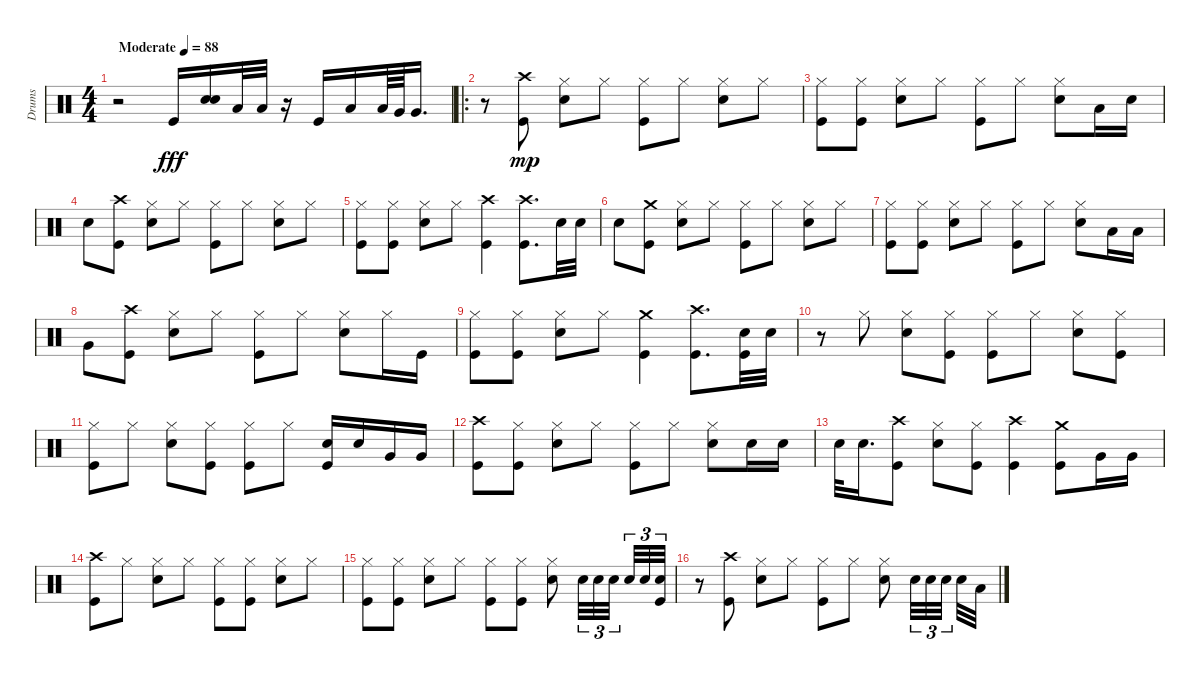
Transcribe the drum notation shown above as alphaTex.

\track ("Drums" "Drums") {instrument percussion}
\staff {score}
\articulation defaults
\ts (4 4)
\tempo (88 "Moderate")
\clef neutral
\ks c
r.2{dy fff} "Kick (hit)".16 ("Snare (hit) 2" "Snare (hit) 2").16 "Low Tom (hit)".32 "Low Tom (hit)".32 r.16 "Kick (hit)".16 "Low Tom (hit)".16 "Low Tom (hit)".64 "Very Low Tom (hit)".64 "Very Low Tom (hit)".16{d} |
\ro
r.8 ("Crash high (hit)" "Kick (hit)").8{dy mp} ("Snare (hit) 2" "Hi-Hat (closed)").8 "Hi-Hat (closed)".8 ("Hi-Hat (closed)" "Kick (hit)").8 "Hi-Hat (closed)".8 ("Hi-Hat (closed)" "Snare (hit) 2").8 "Hi-Hat (closed)".8 |
("Kick (hit)" "Hi-Hat (closed)").8 ("Hi-Hat (closed)" "Kick (hit)").8 ("Snare (hit) 2" "Hi-Hat (closed)").8 "Hi-Hat (closed)".8 ("Kick (hit)" "Hi-Hat (closed)").8 "Hi-Hat (closed)".8 ("Snare (hit) 2" "Hi-Hat (closed)").8 "Low Tom (hit)".16 "Snare (hit) 2".16 |
"Snare (hit) 2".8 ("Crash high (hit)" "Kick (hit)").8 ("Snare (hit) 2" "Hi-Hat (closed)").8 "Hi-Hat (closed)".8 ("Kick (hit)" "Hi-Hat (closed)").8 "Hi-Hat (closed)".8 ("Snare (hit) 2" "Hi-Hat (closed)").8 "Hi-Hat (closed)".8 |
("Kick (hit)" "Hi-Hat (closed)").8 ("Hi-Hat (closed)" "Kick (hit)").8 ("Snare (hit) 2" "Hi-Hat (closed)").8 "Hi-Hat (closed)".8 ("Kick (hit)" "Crash high (hit)").4 ("Crash high (hit)" "Kick (hit)").8{d} "Snare (hit) 2".32 "Snare (hit) 2".32 |
"Snare (hit) 2".8 ("Crash medium (hit)" "Kick (hit)").8 ("Snare (hit) 2" "Hi-Hat (closed)").8 "Hi-Hat (closed)".8 ("Kick (hit)" "Hi-Hat (closed)").8 "Hi-Hat (closed)".8 ("Snare (hit) 2" "Hi-Hat (closed)").8 "Hi-Hat (closed)".8 |
("Kick (hit)" "Hi-Hat (closed)").8 ("Hi-Hat (closed)" "Kick (hit)").8 ("Snare (hit) 2" "Hi-Hat (closed)").8 "Hi-Hat (closed)".8 ("Kick (hit)" "Hi-Hat (closed)").8 "Hi-Hat (closed)".8 ("Snare (hit) 2" "Hi-Hat (closed)").8 "Low Tom (hit)".16 "Low Tom (hit)".16 |
"Very Low Tom (hit)".8 ("Crash high (hit)" "Kick (hit)").8 ("Snare (hit) 2" "Hi-Hat (closed)").8 "Hi-Hat (closed)".8 ("Kick (hit)" "Hi-Hat (closed)").8 "Hi-Hat (closed)".8 ("Snare (hit) 2" "Hi-Hat (closed)").8 "Hi-Hat (closed)".16 "Kick (hit)".16 |
("Kick (hit)" "Hi-Hat (closed)").8 ("Hi-Hat (closed)" "Kick (hit)").8 ("Snare (hit) 2" "Hi-Hat (closed)").8 "Hi-Hat (closed)".8 ("Kick (hit)" "Crash medium (hit)").4 ("Kick (hit)" "Crash high (hit)").8{d} ("Snare (hit) 2" "Kick (hit)").32 "Snare (hit) 2".32 |
r.8 "Hi-Hat (closed)".8 ("Snare (hit) 2" "Hi-Hat (closed)").8 ("Kick (hit)" "Hi-Hat (closed)").8 ("Kick (hit)" "Hi-Hat (closed)").8 "Hi-Hat (closed)".8 ("Snare (hit) 2" "Hi-Hat (closed)").8 ("Kick (hit)" "Hi-Hat (closed)").8 |
("Kick (hit)" "Hi-Hat (closed)").8 "Hi-Hat (closed)".8 ("Snare (hit) 2" "Hi-Hat (closed)").8 ("Kick (hit)" "Hi-Hat (closed)").8 ("Kick (hit)" "Hi-Hat (closed)").8 "Hi-Hat (closed)".8 ("Snare (hit) 2" "Kick (hit)").16 "Snare (hit) 2".16 "Very Low Tom (hit)".16 "Very Low Tom (hit)".16 |
("Kick (hit)" "Crash high (hit)").8 ("Kick (hit)" "Hi-Hat (closed)").8 ("Snare (hit) 2" "Hi-Hat (closed)").8 "Hi-Hat (closed)".8 ("Kick (hit)" "Hi-Hat (closed)").8 "Hi-Hat (closed)".8 ("Snare (hit) 2" "Hi-Hat (closed)").8 "Snare (hit) 2".16 "Snare (hit) 2".16 |
"Snare (hit) 2".32 "Snare (hit) 2".16{d} ("Crash high (hit)" "Kick (hit)").8 ("Snare (hit) 2" "Hi-Hat (closed)").8 ("Kick (hit)" "Hi-Hat (closed)").8 ("Kick (hit)" "Crash high (hit)").4 ("Kick (hit)" "Crash medium (hit)").8 "Very Low Tom (hit)".16 "Very Low Tom (hit)".16 |
("Kick (hit)" "Crash high (hit)").8 "Hi-Hat (closed)".8 ("Snare (hit) 2" "Hi-Hat (closed)").8 "Hi-Hat (closed)".8 ("Kick (hit)" "Hi-Hat (closed)").8 ("Hi-Hat (closed)" "Kick (hit)").8 ("Snare (hit) 2" "Hi-Hat (closed)").8 "Hi-Hat (closed)".8 |
("Kick (hit)" "Hi-Hat (closed)").8 ("Kick (hit)" "Hi-Hat (closed)").8 ("Snare (hit) 2" "Hi-Hat (closed)").8 "Hi-Hat (closed)".8 ("Kick (hit)" "Hi-Hat (closed)").8 ("Hi-Hat (closed)" "Kick (hit)").8 ("Snare (hit) 2" "Hi-Hat (closed)").8 "Snare (hit) 2".32{tu (3 2)} "Snare (hit) 2".32{tu (3 2)} "Snare (hit) 2".32{tu (3 2) beam splitsecondary} "Snare (hit) 2".32{tu (3 2)} "Snare (hit) 2".32{tu (3 2)} ("Kick (hit)" "Snare (hit) 2").32{tu (3 2)} |
r.8 ("Crash high (hit)" "Kick (hit)").8 ("Snare (hit) 2" "Hi-Hat (closed)").8 "Hi-Hat (closed)".8 ("Kick (hit)" "Hi-Hat (closed)").8 "Hi-Hat (closed)".8 ("Snare (hit) 2" "Hi-Hat (closed)").8 "Snare (hit) 2".32{tu (3 2)} "Snare (hit) 2".32{tu (3 2)} "Snare (hit) 2".32{tu (3 2) beam splitsecondary} "Snare (hit) 2".32 "Low Tom (hit)".32
